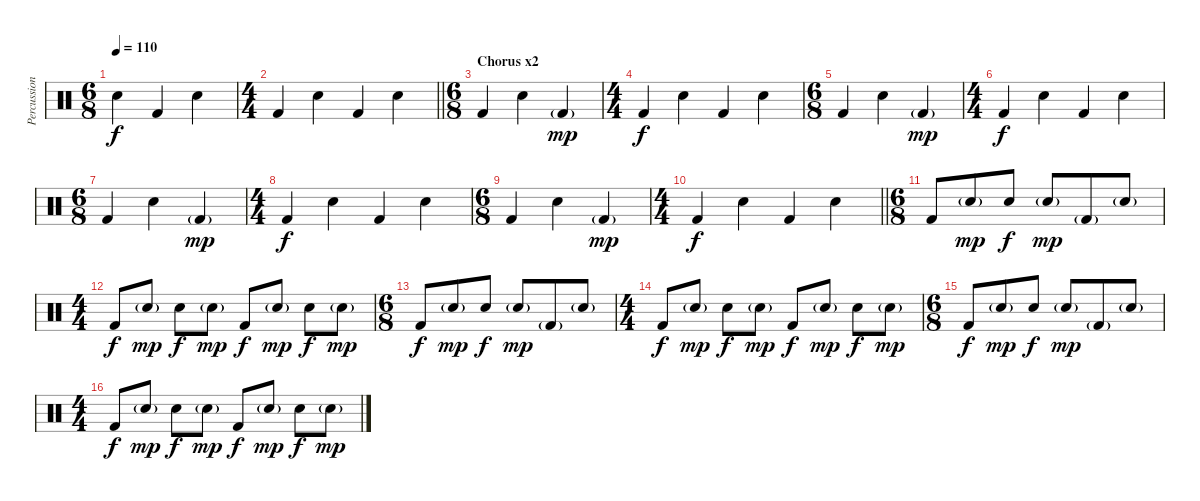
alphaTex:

\track ("Percussion" "Percussion") {instrument percussion}
\staff {score}
\articulation defaults
\ts (6 8)
\tempo 110
\clef neutral
\ks c "Snare (hit) 2".4{dy f} "Kick (hit) 2".4 "Snare (hit) 2".4
|
\ts (4 4)
\barLineRight lightlight "Kick (hit) 2".4 "Snare (hit) 2".4 "Kick (hit) 2".4 "Snare (hit) 2".4
|
\ts (6 8)
\section ("" "Chorus x2")
"Kick (hit) 2".4 "Snare (hit) 2".4 "Kick (hit) 2"{g}.4{dy mp} |
\ts (4 4)
"Kick (hit) 2".4{dy f} "Snare (hit) 2".4 "Kick (hit) 2".4 "Snare (hit) 2".4 |
\ts (6 8)
"Kick (hit) 2".4 "Snare (hit) 2".4 "Kick (hit) 2"{g}.4{dy mp} |
\ts (4 4)
"Kick (hit) 2".4{dy f} "Snare (hit) 2".4 "Kick (hit) 2".4 "Snare (hit) 2".4 |
\ts (6 8)
"Kick (hit) 2".4 "Snare (hit) 2".4 "Kick (hit) 2"{g}.4{dy mp} |
\ts (4 4)
"Kick (hit) 2".4{dy f} "Snare (hit) 2".4 "Kick (hit) 2".4 "Snare (hit) 2".4 |
\ts (6 8)
"Kick (hit) 2".4 "Snare (hit) 2".4 "Kick (hit) 2"{g}.4{dy mp} |
\ts (4 4)
\barLineRight lightlight "Kick (hit) 2".4{dy f} "Snare (hit) 2".4 "Kick (hit) 2".4 "Snare (hit) 2".4
|
\ts (6 8)
"Kick (hit) 2".8 "Hand Clap (hit)"{g}.8{dy mp} "Snare (hit) 2".8{dy f} "Hand Clap (hit)"{g}.8{dy mp} "Kick (hit) 2"{g}.8 "Hand Clap (hit)"{g}.8 |
\ts (4 4)
"Kick (hit) 2".8{dy f} "Hand Clap (hit)"{g}.8{dy mp} "Snare (hit) 2".8{dy f} "Hand Clap (hit)"{g}.8{dy mp} "Kick (hit) 2".8{dy f} "Hand Clap (hit)"{g}.8{dy mp} "Snare (hit) 2".8{dy f} "Hand Clap (hit)"{g}.8{dy mp} |
\ts (6 8)
"Kick (hit) 2".8{dy f} "Hand Clap (hit)"{g}.8{dy mp} "Snare (hit) 2".8{dy f} "Hand Clap (hit)"{g}.8{dy mp} "Kick (hit) 2"{g}.8 "Hand Clap (hit)"{g}.8 |
\ts (4 4)
"Kick (hit) 2".8{dy f} "Hand Clap (hit)"{g}.8{dy mp} "Snare (hit) 2".8{dy f} "Hand Clap (hit)"{g}.8{dy mp} "Kick (hit) 2".8{dy f} "Hand Clap (hit)"{g}.8{dy mp} "Snare (hit) 2".8{dy f} "Hand Clap (hit)"{g}.8{dy mp} |
\ts (6 8)
"Kick (hit) 2".8{dy f} "Hand Clap (hit)"{g}.8{dy mp} "Snare (hit) 2".8{dy f} "Hand Clap (hit)"{g}.8{dy mp} "Kick (hit) 2"{g}.8 "Hand Clap (hit)"{g}.8 |
\ts (4 4)
"Kick (hit) 2".8{dy f} "Hand Clap (hit)"{g}.8{dy mp} "Snare (hit) 2".8{dy f} "Hand Clap (hit)"{g}.8{dy mp} "Kick (hit) 2".8{dy f} "Hand Clap (hit)"{g}.8{dy mp} "Snare (hit) 2".8{dy f} "Hand Clap (hit)"{g}.8{dy mp}
